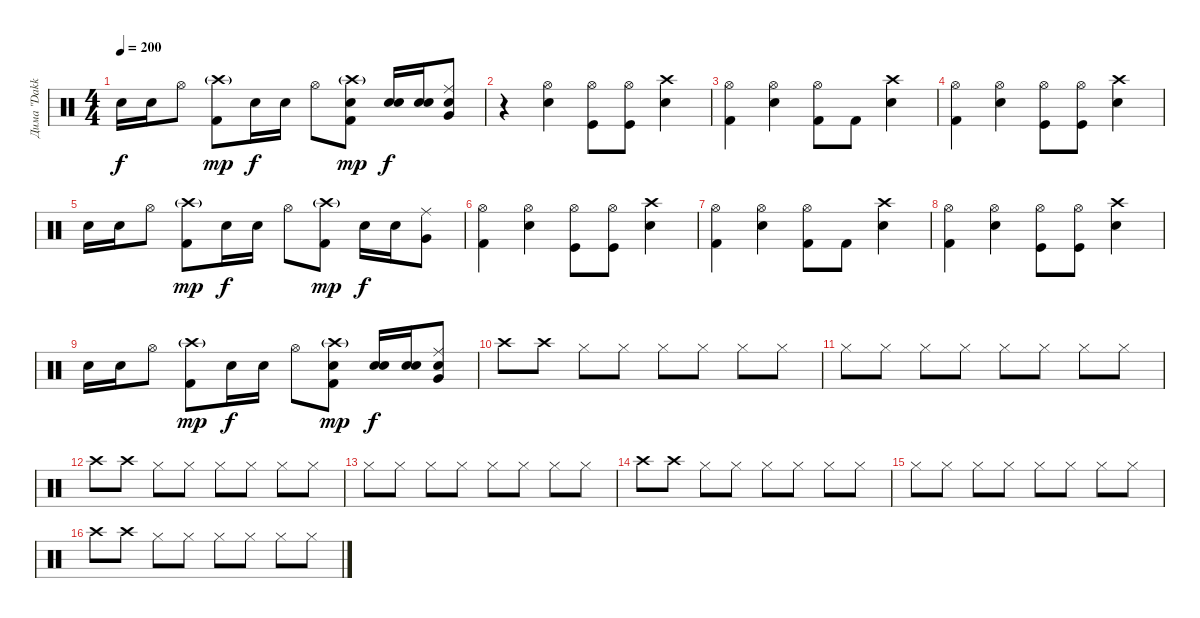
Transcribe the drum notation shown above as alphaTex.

\track ("Дима \"Dakkar\" Кеменов" "Дима \"Dakk") {instrument percussion}
\staff
\articulation defaults
\ts (4 4)
\tempo 200
\clef neutral
\ks c "Electric Snare (hit)".16{dy f} "Electric Snare (hit)".16 "Hi-Hat (open)".8
("Crash high (hit)"{g} "Kick (hit) 2").8{dy mp} "Electric Snare (hit)".16{dy f} "Electric Snare (hit)".16 "Hi-Hat (open)".8 ("Electric Snare (hit)" "Crash high (hit)"{g} "Kick (hit) 2").8{dy mp} ("Electric Snare (hit)" "Electric Snare (hit)").16{dy f} ("Electric Snare (hit)" "Electric Snare (hit)").16 ("Electric Snare (hit)" "Ride (middle)" "Very Low Tom (hit)").8 |
r.4 ("Hi-Hat (open)" "Electric Snare (hit)").4 ("Hi-Hat (open)" "Kick (hit)").8 ("Hi-Hat (open)" "Kick (hit)").8 ("Crash high (hit)" "Electric Snare (hit)").4 |
("Hi-Hat (open)" "Kick (hit) 2").4 ("Hi-Hat (open)" "Electric Snare (hit)").4 ("Hi-Hat (open)" "Kick (hit) 2").8 "Kick (hit) 2".8 ("Crash high (hit)" "Electric Snare (hit)").4 |
("Hi-Hat (open)" "Kick (hit) 2").4 ("Hi-Hat (open)" "Electric Snare (hit)").4 ("Hi-Hat (open)" "Kick (hit)").8 ("Hi-Hat (open)" "Kick (hit)").8 ("Crash high (hit)" "Electric Snare (hit)").4 |
"Electric Snare (hit)".16 "Electric Snare (hit)".16 "Hi-Hat (open)".8 ("Crash high (hit)"{g} "Kick (hit) 2").8{dy mp} "Electric Snare (hit)".16{dy f} "Electric Snare (hit)".16 "Hi-Hat (open)".8 ("Crash high (hit)"{g} "Kick (hit) 2").8{dy mp} "Electric Snare (hit)".16{dy f} "Electric Snare (hit)".16 ("Ride (middle)" "Very Low Tom (hit)").8 |
("Hi-Hat (open)" "Kick (hit) 2").4 ("Hi-Hat (open)" "Electric Snare (hit)").4 ("Hi-Hat (open)" "Kick (hit)").8 ("Hi-Hat (open)" "Kick (hit)").8 ("Crash high (hit)" "Electric Snare (hit)").4 |
("Hi-Hat (open)" "Kick (hit) 2").4 ("Hi-Hat (open)" "Electric Snare (hit)").4 ("Hi-Hat (open)" "Kick (hit) 2").8 "Kick (hit) 2".8 ("Crash high (hit)" "Electric Snare (hit)").4 |
("Hi-Hat (open)" "Kick (hit) 2").4 ("Hi-Hat (open)" "Electric Snare (hit)").4 ("Hi-Hat (open)" "Kick (hit)").8 ("Hi-Hat (open)" "Kick (hit)").8 ("Crash high (hit)" "Electric Snare (hit)").4 |
"Electric Snare (hit)".16 "Electric Snare (hit)".16 "Hi-Hat (open)".8 ("Crash high (hit)"{g} "Kick (hit) 2").8{dy mp} "Electric Snare (hit)".16{dy f} "Electric Snare (hit)".16 "Hi-Hat (open)".8 ("Electric Snare (hit)" "Crash high (hit)"{g} "Kick (hit) 2").8{dy mp} ("Electric Snare (hit)" "Electric Snare (hit)").16{dy f} ("Electric Snare (hit)" "Electric Snare (hit)").16 ("Electric Snare (hit)" "Ride (middle)" "Very Low Tom (hit)").8 |
"Crash high (hit)".8 "Crash high (hit)".8 "Hi-Hat (closed)".8 "Hi-Hat (closed)".8 "Hi-Hat (closed)".8 "Hi-Hat (closed)".8 "Hi-Hat (closed)".8 "Hi-Hat (closed)".8 |
"Hi-Hat (closed)".8 "Hi-Hat (closed)".8 "Hi-Hat (closed)".8 "Hi-Hat (closed)".8 "Hi-Hat (closed)".8 "Hi-Hat (closed)".8 "Hi-Hat (closed)".8 "Hi-Hat (closed)".8 |
"Crash high (hit)".8 "Crash high (hit)".8 "Hi-Hat (closed)".8 "Hi-Hat (closed)".8 "Hi-Hat (closed)".8 "Hi-Hat (closed)".8 "Hi-Hat (closed)".8 "Hi-Hat (closed)".8 |
"Hi-Hat (closed)".8 "Hi-Hat (closed)".8 "Hi-Hat (closed)".8 "Hi-Hat (closed)".8 "Hi-Hat (closed)".8 "Hi-Hat (closed)".8 "Hi-Hat (closed)".8 "Hi-Hat (closed)".8 |
"Crash high (hit)".8 "Crash high (hit)".8 "Hi-Hat (closed)".8 "Hi-Hat (closed)".8 "Hi-Hat (closed)".8 "Hi-Hat (closed)".8 "Hi-Hat (closed)".8 "Hi-Hat (closed)".8 |
"Hi-Hat (closed)".8 "Hi-Hat (closed)".8 "Hi-Hat (closed)".8 "Hi-Hat (closed)".8 "Hi-Hat (closed)".8 "Hi-Hat (closed)".8 "Hi-Hat (closed)".8 "Hi-Hat (closed)".8 |
"Crash high (hit)".8 "Crash high (hit)".8 "Hi-Hat (closed)".8 "Hi-Hat (closed)".8 "Hi-Hat (closed)".8 "Hi-Hat (closed)".8 "Hi-Hat (closed)".8 "Hi-Hat (closed)".8
